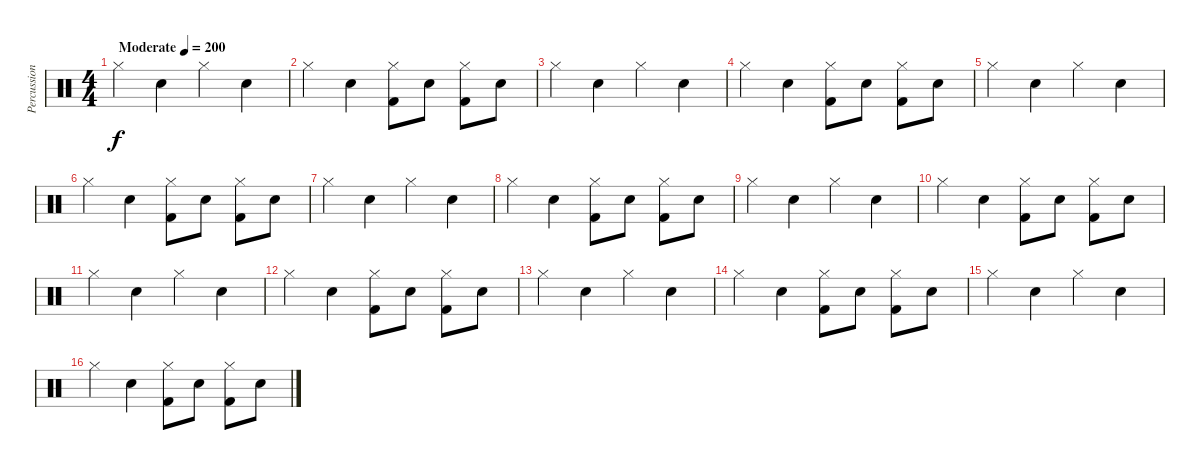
\track ("Percussion" "Percussion") {instrument percussion}
\staff {score}
\articulation defaults
\ts (4 4)
\tempo (200 "Moderate")
\clef neutral
\ks c "Hi-Hat (closed)".4{dy f} "Snare (hit) 2".4 "Hi-Hat (closed)".4 "Snare (hit) 2".4
|
"Hi-Hat (closed)".4 "Snare (hit) 2".4 ("Kick (hit) 2" "Hi-Hat (closed)").8 "Snare (hit) 2".8 ("Kick (hit) 2" "Hi-Hat (closed)").8 "Snare (hit) 2".8 |
"Hi-Hat (closed)".4 "Snare (hit) 2".4 "Hi-Hat (closed)".4 "Snare (hit) 2".4 |
"Hi-Hat (closed)".4 "Snare (hit) 2".4 ("Kick (hit) 2" "Hi-Hat (closed)").8 "Snare (hit) 2".8 ("Kick (hit) 2" "Hi-Hat (closed)").8 "Snare (hit) 2".8 |
"Hi-Hat (closed)".4 "Snare (hit) 2".4 "Hi-Hat (closed)".4 "Snare (hit) 2".4 |
"Hi-Hat (closed)".4 "Snare (hit) 2".4 ("Kick (hit) 2" "Hi-Hat (closed)").8 "Snare (hit) 2".8 ("Kick (hit) 2" "Hi-Hat (closed)").8 "Snare (hit) 2".8 |
"Hi-Hat (closed)".4 "Snare (hit) 2".4 "Hi-Hat (closed)".4 "Snare (hit) 2".4 |
"Hi-Hat (closed)".4 "Snare (hit) 2".4 ("Kick (hit) 2" "Hi-Hat (closed)").8 "Snare (hit) 2".8 ("Kick (hit) 2" "Hi-Hat (closed)").8 "Snare (hit) 2".8 |
"Hi-Hat (closed)".4 "Snare (hit) 2".4 "Hi-Hat (closed)".4 "Snare (hit) 2".4 |
"Hi-Hat (closed)".4 "Snare (hit) 2".4 ("Kick (hit) 2" "Hi-Hat (closed)").8 "Snare (hit) 2".8 ("Kick (hit) 2" "Hi-Hat (closed)").8 "Snare (hit) 2".8 |
"Hi-Hat (closed)".4 "Snare (hit) 2".4 "Hi-Hat (closed)".4 "Snare (hit) 2".4 |
"Hi-Hat (closed)".4 "Snare (hit) 2".4 ("Kick (hit) 2" "Hi-Hat (closed)").8 "Snare (hit) 2".8 ("Kick (hit) 2" "Hi-Hat (closed)").8 "Snare (hit) 2".8 |
"Hi-Hat (closed)".4 "Snare (hit) 2".4 "Hi-Hat (closed)".4 "Snare (hit) 2".4 |
"Hi-Hat (closed)".4 "Snare (hit) 2".4 ("Kick (hit) 2" "Hi-Hat (closed)").8 "Snare (hit) 2".8 ("Kick (hit) 2" "Hi-Hat (closed)").8 "Snare (hit) 2".8 |
"Hi-Hat (closed)".4 "Snare (hit) 2".4 "Hi-Hat (closed)".4 "Snare (hit) 2".4 |
"Hi-Hat (closed)".4 "Snare (hit) 2".4 ("Kick (hit) 2" "Hi-Hat (closed)").8 "Snare (hit) 2".8 ("Kick (hit) 2" "Hi-Hat (closed)").8 "Snare (hit) 2".8
